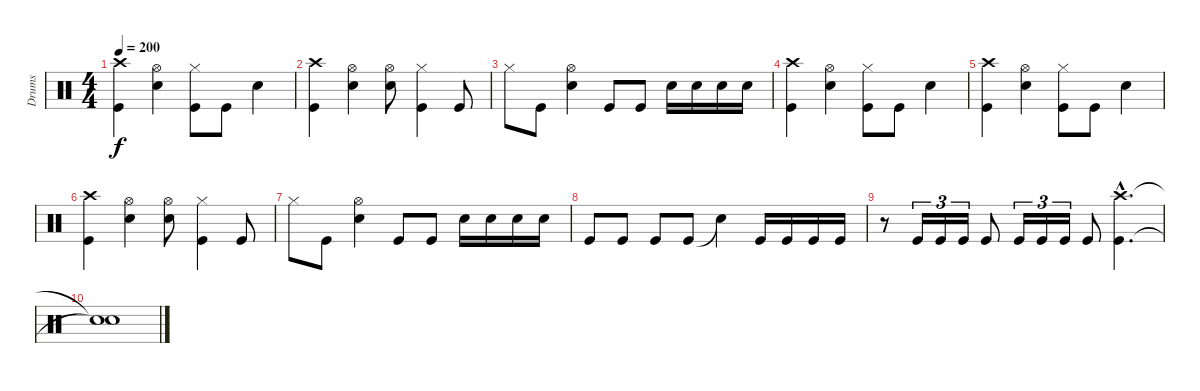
\track ("Drums" "Drums") {instrument percussion}
\staff {score}
\articulation defaults
\ts (4 4)
\tempo 200
\clef neutral
\ks c
("Crash high (hit)" "Kick (hit)").4{dy f} ("Hi-Hat (open)" "Snare (hit) 2").4 ("Hi-Hat (closed)" "Kick (hit)").8 "Kick (hit)".8 "Snare (hit) 2".4 |
("Crash high (hit)" "Kick (hit)").4 ("Hi-Hat (open)" "Snare (hit) 2").4 ("Hi-Hat (open)" "Snare (hit) 2").8 ("Hi-Hat (closed)" "Kick (hit)").4 "Kick (hit)".8 |
"Hi-Hat (closed)".8 "Kick (hit)".8 ("Hi-Hat (open)" "Snare (hit) 2").4 "Kick (hit)".8 "Kick (hit)".8 "Snare (hit) 2".16 "Snare (hit) 2".16 "Snare (hit) 2".16 "Snare (hit) 2".16 |
("Crash high (hit)" "Kick (hit)").4 ("Hi-Hat (open)" "Snare (hit) 2").4 ("Hi-Hat (closed)" "Kick (hit)").8 "Kick (hit)".8 "Snare (hit) 2".4 |
("Crash high (hit)" "Kick (hit)").4 ("Hi-Hat (open)" "Snare (hit) 2").4 ("Hi-Hat (closed)" "Kick (hit)").8 "Kick (hit)".8 "Snare (hit) 2".4 |
("Crash high (hit)" "Kick (hit)").4 ("Hi-Hat (open)" "Snare (hit) 2").4 ("Hi-Hat (open)" "Snare (hit) 2").8 ("Hi-Hat (closed)" "Kick (hit)").4 "Kick (hit)".8 |
"Hi-Hat (closed)".8 "Kick (hit)".8 ("Hi-Hat (open)" "Snare (hit) 2").4 "Kick (hit)".8 "Kick (hit)".8 "Snare (hit) 2".16 "Snare (hit) 2".16 "Snare (hit) 2".16 "Snare (hit) 2".16 |
"Kick (hit)".8 "Kick (hit)".8 "Kick (hit)".8 "Kick (hit)".8 "Snare (hit)"{t}.4 "Kick (hit)".16 "Kick (hit)".16 "Kick (hit)".16 "Kick (hit)".16 |
r.8 "Kick (hit)".16{tu (3 2)} "Kick (hit)".16{tu (3 2)} "Kick (hit)".16{tu (3 2)} "Kick (hit)".8 "Kick (hit)".16{tu (3 2)} "Kick (hit)".16{tu (3 2)} "Kick (hit)".16{tu (3 2)} "Kick (hit)".8 ("Crash high (hit)"{hac} "Kick (hit)"{hac}).4{d} |
("Snare (hit)"{t} "Snare (hit)"{t}).1
